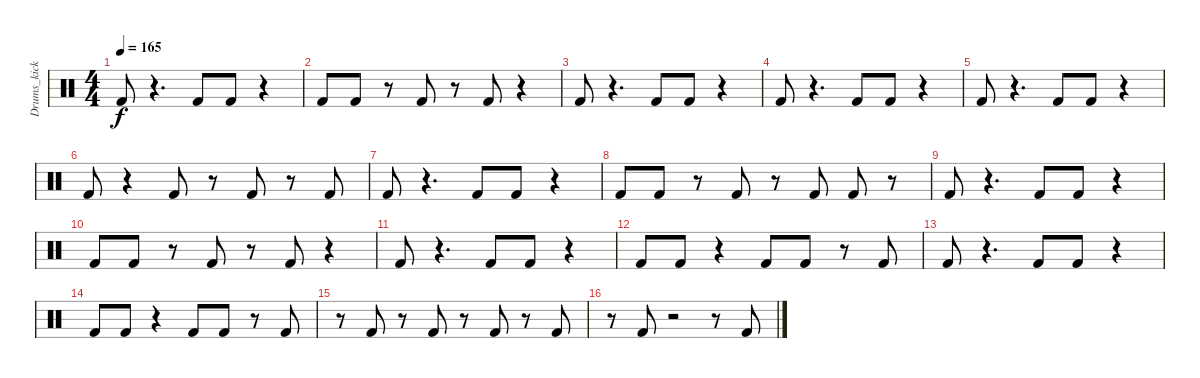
\track ("Drums_kick" "Drums_kick") {instrument percussion}
\staff {score}
\articulation defaults
\ts (4 4)
\tempo 165
\clef neutral
\ks c "Kick (hit) 2".8{dy f}
r.4{d} "Kick (hit) 2".8 "Kick (hit) 2".8 r.4 |
"Kick (hit) 2".8 "Kick (hit) 2".8 r.8 "Kick (hit) 2".8 r.8 "Kick (hit) 2".8 r.4 |
"Kick (hit) 2".8 r.4{d} "Kick (hit) 2".8 "Kick (hit) 2".8 r.4 |
"Kick (hit) 2".8 r.4{d} "Kick (hit) 2".8 "Kick (hit) 2".8 r.4 |
"Kick (hit) 2".8 r.4{d} "Kick (hit) 2".8 "Kick (hit) 2".8 r.4 |
"Kick (hit) 2".8 r.4 "Kick (hit) 2".8 r.8 "Kick (hit) 2".8 r.8 "Kick (hit) 2".8 |
"Kick (hit) 2".8 r.4{d} "Kick (hit) 2".8 "Kick (hit) 2".8 r.4 |
"Kick (hit) 2".8 "Kick (hit) 2".8 r.8 "Kick (hit) 2".8 r.8 "Kick (hit) 2".8 "Kick (hit) 2".8 r.8 |
"Kick (hit) 2".8 r.4{d} "Kick (hit) 2".8 "Kick (hit) 2".8 r.4 |
"Kick (hit) 2".8 "Kick (hit) 2".8 r.8 "Kick (hit) 2".8 r.8 "Kick (hit) 2".8 r.4 |
"Kick (hit) 2".8 r.4{d} "Kick (hit) 2".8 "Kick (hit) 2".8 r.4 |
"Kick (hit) 2".8 "Kick (hit) 2".8 r.4 "Kick (hit) 2".8 "Kick (hit) 2".8 r.8 "Kick (hit) 2".8 |
"Kick (hit) 2".8 r.4{d} "Kick (hit) 2".8 "Kick (hit) 2".8 r.4 |
"Kick (hit) 2".8 "Kick (hit) 2".8 r.4 "Kick (hit) 2".8 "Kick (hit) 2".8 r.8 "Kick (hit) 2".8 |
r.8 "Kick (hit) 2".8 r.8 "Kick (hit) 2".8 r.8 "Kick (hit) 2".8 r.8 "Kick (hit) 2".8 |
r.8 "Kick (hit) 2".8 r.2 r.8 "Kick (hit) 2".8
